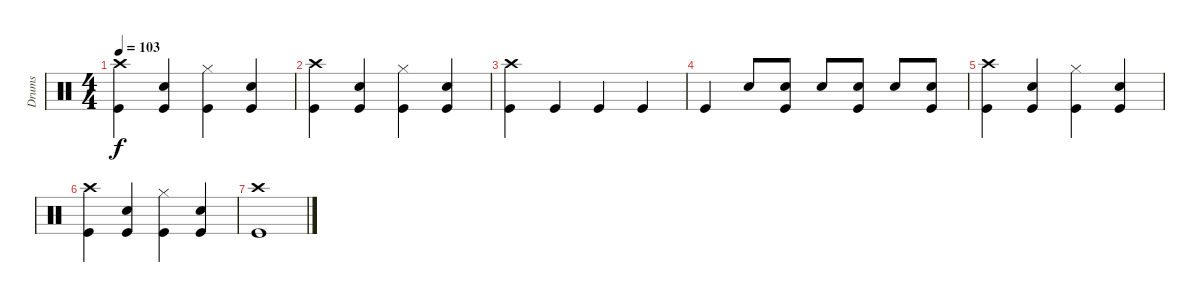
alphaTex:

\track ("Drums" "Drums") {instrument percussion}
\staff {score}
\articulation defaults
\ts (4 4)
\tempo 103
\clef neutral
\ks c
("Crash high (hit)" "Kick (hit)").4{dy f} ("Snare (hit) 2" "Kick (hit)").4 ("Hi-Hat (closed)" "Kick (hit)").4 ("Snare (hit) 2" "Kick (hit)").4 |
("Crash high (hit)" "Kick (hit)").4 ("Snare (hit) 2" "Kick (hit)").4 ("Hi-Hat (closed)" "Kick (hit)").4 ("Snare (hit) 2" "Kick (hit)").4 |
("Crash high (hit)" "Kick (hit)").4 "Kick (hit)".4 "Kick (hit)".4 "Kick (hit)".4 |
"Kick (hit)".4 "Snare (hit) 2".8 ("Snare (hit) 2" "Kick (hit)").8 "Snare (hit) 2".8 ("Snare (hit) 2" "Kick (hit)").8 "Snare (hit) 2".8 ("Snare (hit) 2" "Kick (hit)").8 |
("Crash high (hit)" "Kick (hit)").4 ("Snare (hit) 2" "Kick (hit)").4 ("Hi-Hat (closed)" "Kick (hit)").4 ("Snare (hit) 2" "Kick (hit)").4 |
("Crash high (hit)" "Kick (hit)").4 ("Snare (hit) 2" "Kick (hit)").4 ("Hi-Hat (closed)" "Kick (hit)").4 ("Snare (hit) 2" "Kick (hit)").4 |
("Crash high (hit)" "Kick (hit)").1
